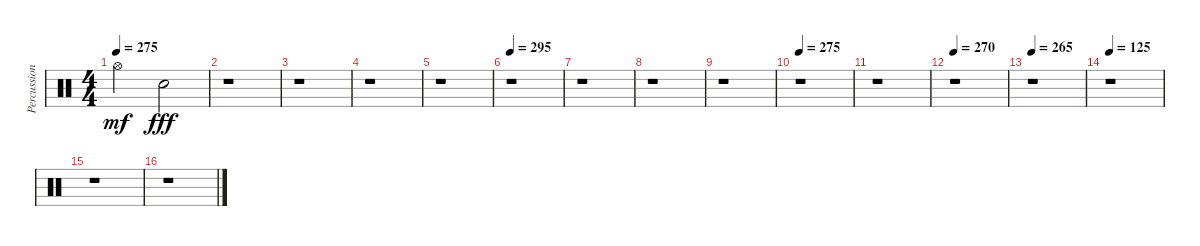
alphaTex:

\track ("Percussion" "Percussion") {instrument percussion}
\staff {score}
\articulation defaults
\ts (4 4)
\tempo 275
\clef neutral
\ks c "Hi-Hat (open)".2{dy mf} "Snare (hit) 2".2{dy fff}
|
r.1 |
r.1 |
r.1 |
r.1 |
\tempo 295
r.1 |
r.1 |
r.1 |
r.1 |
\tempo 275
r.1 |
r.1 |
\tempo 270
r.1 |
\tempo 265
r.1 |
\tempo 125
r.1 |
r.1 |
r.1
